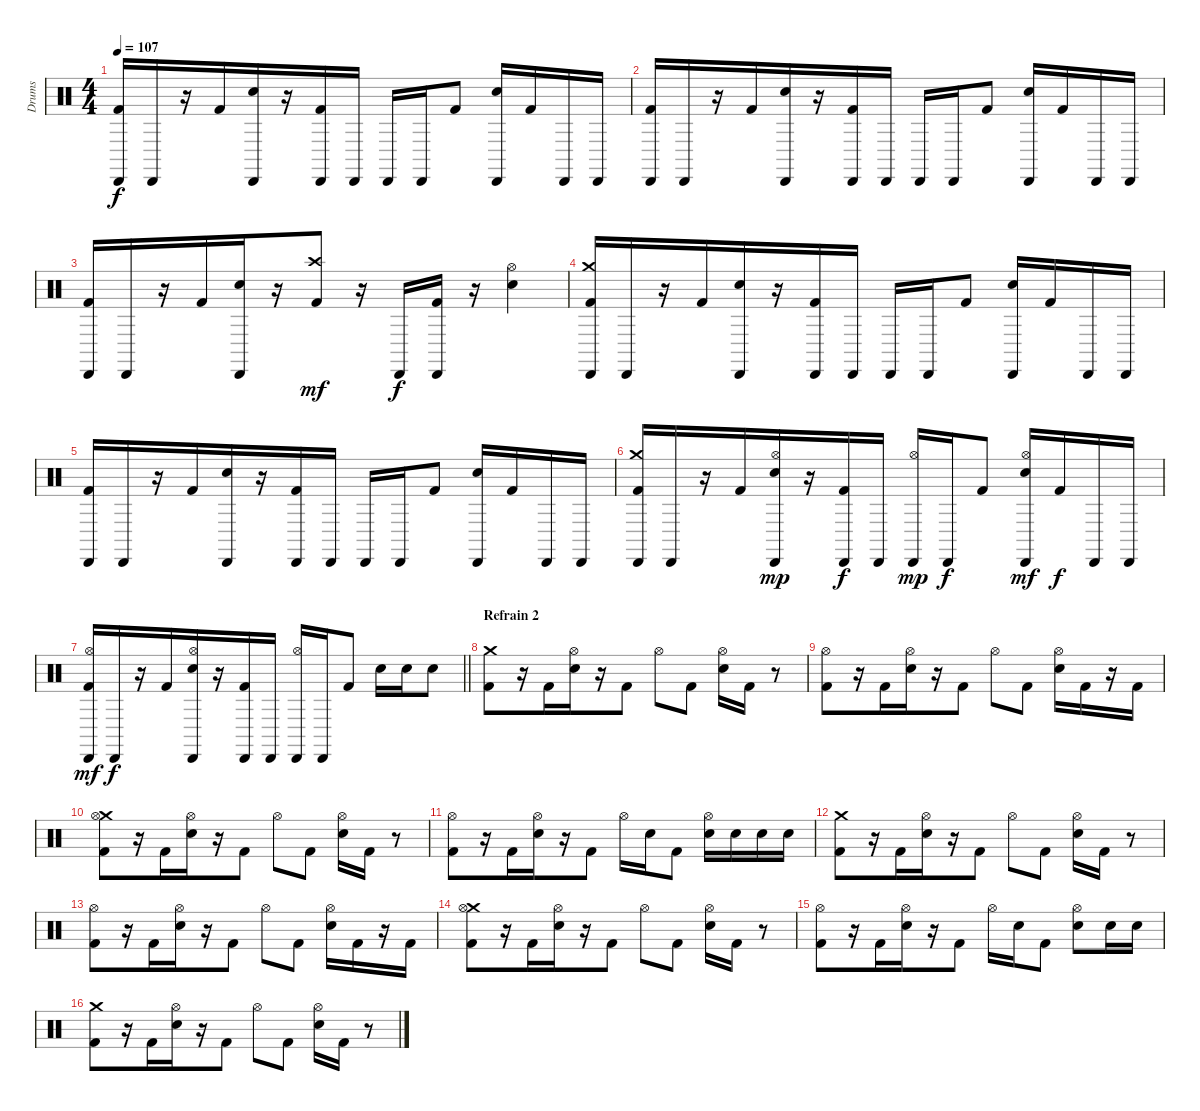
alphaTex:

\track ("Drums" "Drums") {instrument percussion}
\staff {score}
\articulation defaults
\ts (4 4)
\tempo 107
\clef neutral
\ks c
("Cabasa (hit)" "Kick (hit) 2").16{dy f} "Cabasa (hit)".16 r.16 "Kick (hit) 2".16{beam merge} ("Cabasa (hit)" "Electric Snare (hit)").16 r.16 ("Cabasa (hit)" "Kick (hit) 2").16 "Cabasa (hit)".16 "Cabasa (hit)".16 "Cabasa (hit)".16 "Kick (hit) 2".8 ("Cabasa (hit)" "Electric Snare (hit)").16 "Kick (hit) 2".16 "Cabasa (hit)".16 "Cabasa (hit)".16 |
("Cabasa (hit)" "Kick (hit) 2").16 "Cabasa (hit)".16 r.16 "Kick (hit) 2".16{beam merge} ("Cabasa (hit)" "Electric Snare (hit)").16 r.16 ("Cabasa (hit)" "Kick (hit) 2").16 "Cabasa (hit)".16 "Cabasa (hit)".16 "Cabasa (hit)".16 "Kick (hit) 2".8 ("Cabasa (hit)" "Electric Snare (hit)").16 "Kick (hit) 2".16 "Cabasa (hit)".16 "Cabasa (hit)".16 |
("Cabasa (hit)" "Kick (hit) 2").16 "Cabasa (hit)".16 r.16 "Kick (hit) 2".16{beam merge} ("Cabasa (hit)" "Electric Snare (hit)").16 r.16 ("Crash high (hit)" "Kick (hit) 2").8{dy mf} r.16 "Cabasa (hit)".16{dy f} ("Cabasa (hit)" "Kick (hit) 2").16 r.16 ("Hi-Hat (open)" "Electric Snare (hit)").4 |
("Crash medium (hit)" "Cabasa (hit)" "Kick (hit) 2").16 "Cabasa (hit)".16 r.16 "Kick (hit) 2".16{beam merge} ("Cabasa (hit)" "Electric Snare (hit)").16 r.16 ("Cabasa (hit)" "Kick (hit) 2").16 "Cabasa (hit)".16 "Cabasa (hit)".16 "Cabasa (hit)".16 "Kick (hit) 2".8 ("Cabasa (hit)" "Electric Snare (hit)").16 "Kick (hit) 2".16 "Cabasa (hit)".16 "Cabasa (hit)".16 |
("Cabasa (hit)" "Kick (hit) 2").16 "Cabasa (hit)".16 r.16 "Kick (hit) 2".16{beam merge} ("Cabasa (hit)" "Electric Snare (hit)").16 r.16 ("Cabasa (hit)" "Kick (hit) 2").16 "Cabasa (hit)".16 "Cabasa (hit)".16 "Cabasa (hit)".16 "Kick (hit) 2".8 ("Cabasa (hit)" "Electric Snare (hit)").16 "Kick (hit) 2".16 "Cabasa (hit)".16 "Cabasa (hit)".16 |
("Crash medium (hit)" "Cabasa (hit)" "Kick (hit) 2").16 "Cabasa (hit)".16 r.16 "Kick (hit) 2".16{beam merge} ("Hi-Hat (open)" "Cabasa (hit)" "Electric Snare (hit)").16{dy mp} r.16 ("Cabasa (hit)" "Kick (hit) 2").16{dy f} "Cabasa (hit)".16 ("Hi-Hat (open)" "Cabasa (hit)").16{dy mp} "Cabasa (hit)".16{dy f} "Kick (hit) 2".8 ("Hi-Hat (open)" "Cabasa (hit)" "Electric Snare (hit)").16{dy mf} "Kick (hit) 2".16{dy f} "Cabasa (hit)".16 "Cabasa (hit)".16 |
\barLineRight lightlight
("Hi-Hat (open)" "Cabasa (hit)" "Kick (hit) 2").16{dy mf} "Cabasa (hit)".16{dy f} r.16 "Kick (hit) 2".16{beam merge} ("Hi-Hat (open)" "Cabasa (hit)" "Electric Snare (hit)").16 r.16 ("Cabasa (hit)" "Kick (hit) 2").16 "Cabasa (hit)".16 ("Hi-Hat (open)" "Cabasa (hit)").16 "Cabasa (hit)".16 "Kick (hit) 2".8 "Electric Snare (hit)".16 "Electric Snare (hit)".16 "Electric Snare (hit)".8 |
\section ("" "Refrain 2")
("Crash medium (hit)" "Kick (hit) 2").8 r.16 "Kick (hit) 2".16{beam merge} ("Hi-Hat (open)" "Electric Snare (hit)").16 r.16 "Kick (hit) 2".8 "Hi-Hat (open)".8 "Kick (hit) 2".8 ("Hi-Hat (open)" "Electric Snare (hit)").16 "Kick (hit) 2".16 r.8 |
("Hi-Hat (open)" "Kick (hit) 2").8 r.16 "Kick (hit) 2".16{beam merge} ("Hi-Hat (open)" "Electric Snare (hit)").16 r.16 "Kick (hit) 2".8 "Hi-Hat (open)".8 "Kick (hit) 2".8 ("Hi-Hat (open)" "Electric Snare (hit)").16 "Kick (hit) 2".16 r.16 "Kick (hit) 2".16 |
("Crash medium (hit)" "Hi-Hat (open)" "Kick (hit) 2").8 r.16 "Kick (hit) 2".16{beam merge} ("Hi-Hat (open)" "Electric Snare (hit)").16 r.16 "Kick (hit) 2".8 "Hi-Hat (open)".8 "Kick (hit) 2".8 ("Hi-Hat (open)" "Electric Snare (hit)").16 "Kick (hit) 2".16 r.8 |
("Hi-Hat (open)" "Kick (hit) 2").8 r.16 "Kick (hit) 2".16{beam merge} ("Hi-Hat (open)" "Electric Snare (hit)").16 r.16 "Kick (hit) 2".8 "Hi-Hat (open)".16 "Electric Snare (hit)".16 "Kick (hit) 2".8 ("Hi-Hat (open)" "Electric Snare (hit)").16 "Electric Snare (hit)".16 "Electric Snare (hit)".16 "Electric Snare (hit)".16 |
("Crash medium (hit)" "Kick (hit) 2").8 r.16 "Kick (hit) 2".16{beam merge} ("Hi-Hat (open)" "Electric Snare (hit)").16 r.16 "Kick (hit) 2".8 "Hi-Hat (open)".8 "Kick (hit) 2".8 ("Hi-Hat (open)" "Electric Snare (hit)").16 "Kick (hit) 2".16 r.8 |
("Hi-Hat (open)" "Kick (hit) 2").8 r.16 "Kick (hit) 2".16{beam merge} ("Hi-Hat (open)" "Electric Snare (hit)").16 r.16 "Kick (hit) 2".8 "Hi-Hat (open)".8 "Kick (hit) 2".8 ("Hi-Hat (open)" "Electric Snare (hit)").16 "Kick (hit) 2".16 r.16 "Kick (hit) 2".16 |
("Crash medium (hit)" "Hi-Hat (open)" "Kick (hit) 2").8 r.16 "Kick (hit) 2".16{beam merge} ("Hi-Hat (open)" "Electric Snare (hit)").16 r.16 "Kick (hit) 2".8 "Hi-Hat (open)".8 "Kick (hit) 2".8 ("Hi-Hat (open)" "Electric Snare (hit)").16 "Kick (hit) 2".16 r.8 |
("Hi-Hat (open)" "Kick (hit) 2").8 r.16 "Kick (hit) 2".16{beam merge} ("Hi-Hat (open)" "Electric Snare (hit)").16 r.16 "Kick (hit) 2".8 "Hi-Hat (open)".16 "Electric Snare (hit)".16 "Kick (hit) 2".8 ("Hi-Hat (open)" "Electric Snare (hit)").8 "Electric Snare (hit)".16 "Electric Snare (hit)".16 |
("Crash medium (hit)" "Kick (hit) 2").8 r.16 "Kick (hit) 2".16{beam merge} ("Hi-Hat (open)" "Electric Snare (hit)").16 r.16 "Kick (hit) 2".8 "Hi-Hat (open)".8 "Kick (hit) 2".8 ("Hi-Hat (open)" "Electric Snare (hit)").16 "Kick (hit) 2".16 r.8
